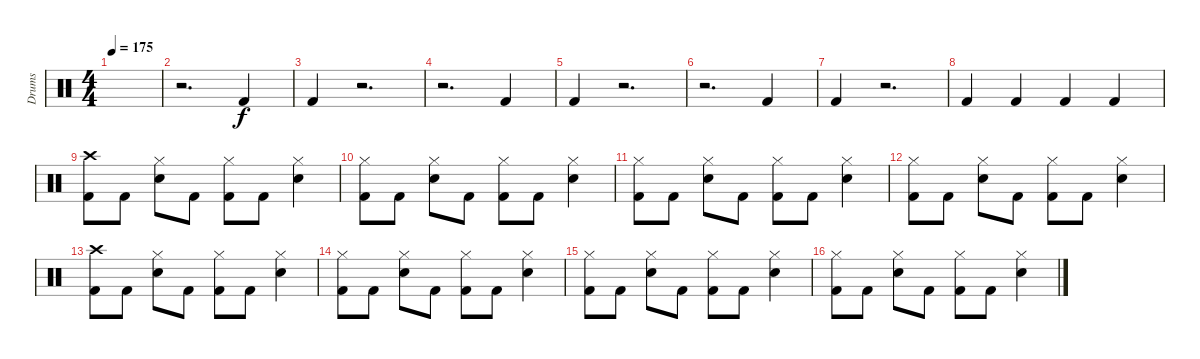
\track ("Drums" "Drums") {instrument percussion}
\staff {score}
\articulation defaults
\ts (4 4)
\tempo 175
\clef neutral
\ks c
|
r.2{d} "Kick (hit) 2".4 |
"Kick (hit) 2".4 r.2{d} |
r.2{d} "Kick (hit) 2".4 |
"Kick (hit) 2".4 r.2{d} |
r.2{d} "Kick (hit) 2".4 |
"Kick (hit) 2".4 r.2{d} |
"Kick (hit) 2".4 "Kick (hit) 2".4 "Kick (hit) 2".4 "Kick (hit) 2".4 |
("Crash high (hit)" "Kick (hit) 2").8 "Kick (hit) 2".8 ("Hi-Hat (closed)" "Electric Snare (hit)").8 "Kick (hit) 2".8 ("Hi-Hat (closed)" "Kick (hit) 2").8 "Kick (hit) 2".8 ("Hi-Hat (closed)" "Electric Snare (hit)").4 |
("Hi-Hat (closed)" "Kick (hit) 2").8 "Kick (hit) 2".8 ("Hi-Hat (closed)" "Electric Snare (hit)").8 "Kick (hit) 2".8 ("Hi-Hat (closed)" "Kick (hit) 2").8 "Kick (hit) 2".8 ("Hi-Hat (closed)" "Electric Snare (hit)").4 |
("Hi-Hat (closed)" "Kick (hit) 2").8 "Kick (hit) 2".8 ("Hi-Hat (closed)" "Electric Snare (hit)").8 "Kick (hit) 2".8 ("Hi-Hat (closed)" "Kick (hit) 2").8 "Kick (hit) 2".8 ("Hi-Hat (closed)" "Electric Snare (hit)").4 |
("Hi-Hat (closed)" "Kick (hit) 2").8 "Kick (hit) 2".8 ("Hi-Hat (closed)" "Electric Snare (hit)").8 "Kick (hit) 2".8 ("Hi-Hat (closed)" "Kick (hit) 2").8 "Kick (hit) 2".8 ("Hi-Hat (closed)" "Electric Snare (hit)").4 |
("Crash high (hit)" "Kick (hit) 2").8 "Kick (hit) 2".8 ("Hi-Hat (closed)" "Electric Snare (hit)").8 "Kick (hit) 2".8 ("Hi-Hat (closed)" "Kick (hit) 2").8 "Kick (hit) 2".8 ("Hi-Hat (closed)" "Electric Snare (hit)").4 |
("Hi-Hat (closed)" "Kick (hit) 2").8 "Kick (hit) 2".8 ("Hi-Hat (closed)" "Electric Snare (hit)").8 "Kick (hit) 2".8 ("Hi-Hat (closed)" "Kick (hit) 2").8 "Kick (hit) 2".8 ("Hi-Hat (closed)" "Electric Snare (hit)").4 |
("Hi-Hat (closed)" "Kick (hit) 2").8 "Kick (hit) 2".8 ("Hi-Hat (closed)" "Electric Snare (hit)").8 "Kick (hit) 2".8 ("Hi-Hat (closed)" "Kick (hit) 2").8 "Kick (hit) 2".8 ("Hi-Hat (closed)" "Electric Snare (hit)").4 |
("Hi-Hat (closed)" "Kick (hit) 2").8 "Kick (hit) 2".8 ("Hi-Hat (closed)" "Electric Snare (hit)").8 "Kick (hit) 2".8 ("Hi-Hat (closed)" "Kick (hit) 2").8 "Kick (hit) 2".8 ("Hi-Hat (closed)" "Electric Snare (hit)").4
